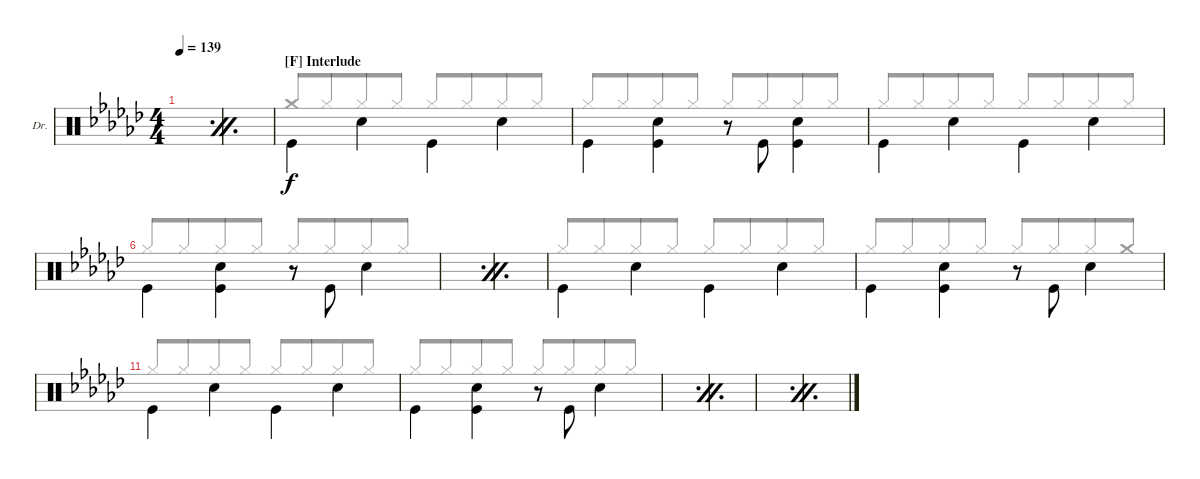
\bracketExtendMode groupsimilarinstruments
\firstSystemTrackNameOrientation horizontal
\otherSystemsTrackNameOrientation horizontal
\defaultBarNumberDisplay FirstOfSystem
\track ("Drums" "Dr.") {instrument percussion}
\staff {score}
\articulation defaults
\voice
\ts (4 4)
\tempo 139
\clef neutral
\simile firstofdouble
\ks gb
|
\simile secondofdouble
|
\section ("F" "Interlude")
\simile none "Kick (hit)".4{beam invert} "Snare (hit) 2".4{beam invert} "Kick (hit)".4{beam invert} "Snare (hit) 2".4{beam invert}
|
"Kick (hit)".4{beam invert} ("Snare (hit) 2" "Kick (hit)").4{beam invert} r.8 "Kick (hit)".8{beam invert} ("Kick (hit)" "Snare (hit) 2").4{beam invert} |
"Kick (hit)".4{beam invert} "Snare (hit) 2".4{beam invert} "Kick (hit)".4{beam invert} "Snare (hit) 2".4{beam invert} |
"Kick (hit)".4{beam invert} ("Snare (hit) 2" "Kick (hit)").4{beam invert} r.8 "Kick (hit)".8{beam invert} "Snare (hit) 2".4{beam invert} |
\simile firstofdouble
|
\simile secondofdouble
|
\simile none "Kick (hit)".4{beam invert} "Snare (hit) 2".4{beam invert} "Kick (hit)".4{beam invert} "Snare (hit) 2".4{beam invert}
|
"Kick (hit)".4{beam invert} ("Snare (hit) 2" "Kick (hit)").4{beam invert} r.8 "Kick (hit)".8{beam invert} "Snare (hit) 2".4{beam invert} |
"Kick (hit)".4{beam invert} "Snare (hit) 2".4{beam invert} "Kick (hit)".4{beam invert} "Snare (hit) 2".4{beam invert} |
"Kick (hit)".4{beam invert} ("Snare (hit) 2" "Kick (hit)").4{beam invert} r.8 "Kick (hit)".8{beam invert} "Snare (hit) 2".4{beam invert} |
\simile firstofdouble
|
\simile secondofdouble
|
\simile firstofdouble
|
\simile secondofdouble
\voice
\clef neutral
\ottava regular
\simile firstofdouble
\ks gb
|
\simile secondofdouble
|
\simile none "Crash medium (hit)".8{beam invert} "Hi-Hat (closed)".8{beam merge} "Hi-Hat (closed)".8 "Hi-Hat (closed)".8 "Hi-Hat (closed)".8{beam invert} "Hi-Hat (closed)".8{beam merge} "Hi-Hat (closed)".8 "Hi-Hat (closed)".8
|
"Hi-Hat (closed)".8{beam invert} "Hi-Hat (closed)".8{beam merge} "Hi-Hat (closed)".8 "Hi-Hat (closed)".8 "Hi-Hat (closed)".8{beam invert beam merge} "Hi-Hat (closed)".8{beam merge} "Hi-Hat (closed)".8{beam merge} "Hi-Hat (closed)".8 |
"Hi-Hat (closed)".8{beam invert} "Hi-Hat (closed)".8{beam merge} "Hi-Hat (closed)".8 "Hi-Hat (closed)".8 "Hi-Hat (closed)".8{beam invert} "Hi-Hat (closed)".8{beam merge} "Hi-Hat (closed)".8 "Hi-Hat (closed)".8 |
"Hi-Hat (closed)".8{beam invert beam merge} "Hi-Hat (closed)".8{beam merge} "Hi-Hat (closed)".8 "Hi-Hat (closed)".8 "Hi-Hat (closed)".8{beam invert} "Hi-Hat (closed)".8{beam merge} "Hi-Hat (closed)".8{beam merge} "Hi-Hat (closed)".8 |
\simile firstofdouble
|
\simile secondofdouble
|
\simile none "Hi-Hat (closed)".8{beam invert} "Hi-Hat (closed)".8{beam merge} "Hi-Hat (closed)".8 "Hi-Hat (closed)".8 "Hi-Hat (closed)".8{beam invert} "Hi-Hat (closed)".8{beam merge} "Hi-Hat (closed)".8 "Hi-Hat (closed)".8
|
"Hi-Hat (closed)".8{beam invert beam merge} "Hi-Hat (closed)".8{beam merge} "Hi-Hat (closed)".8 "Hi-Hat (closed)".8 "Hi-Hat (closed)".8{beam invert} "Hi-Hat (closed)".8{beam merge} "Hi-Hat (closed)".8{beam merge} "Crash medium (hit)".8 |
"Hi-Hat (closed)".8{beam invert} "Hi-Hat (closed)".8{beam merge} "Hi-Hat (closed)".8 "Hi-Hat (closed)".8 "Hi-Hat (closed)".8{beam invert} "Hi-Hat (closed)".8{beam merge} "Hi-Hat (closed)".8 "Hi-Hat (closed)".8 |
"Hi-Hat (closed)".8{beam invert} "Hi-Hat (closed)".8{beam merge} "Hi-Hat (closed)".8 "Hi-Hat (closed)".8 "Hi-Hat (closed)".8{beam invert beam merge} "Hi-Hat (closed)".8{beam merge} "Hi-Hat (closed)".8{beam merge} "Hi-Hat (closed)".8 |
\simile firstofdouble
|
\simile secondofdouble
|
\simile firstofdouble
|
\simile secondofdouble
